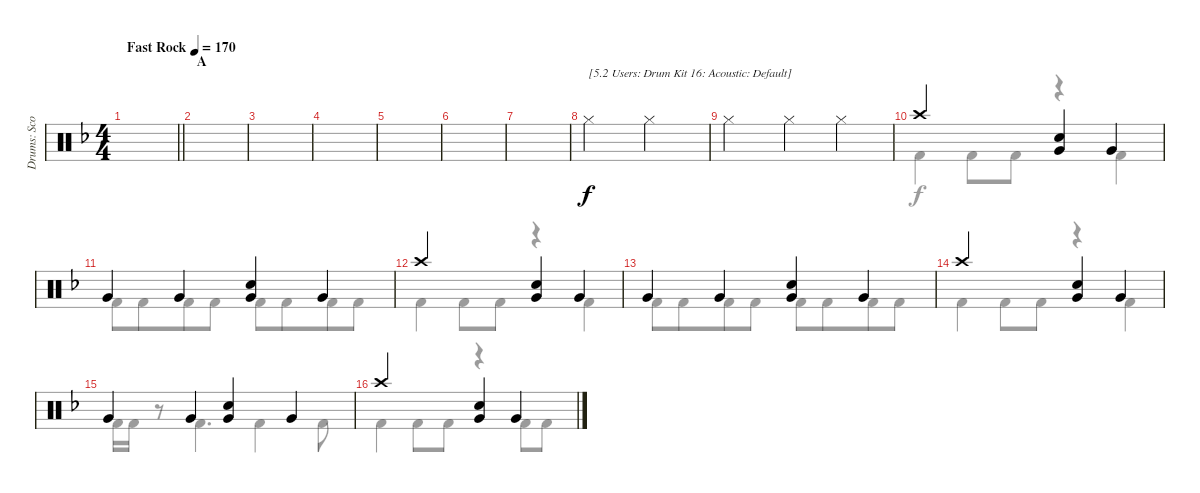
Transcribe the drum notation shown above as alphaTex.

\track ("Drums: Scott" "Drums: Sco") {instrument percussion}
\staff {score}
\articulation defaults
\voice
\ts (4 4)
\tempo (170 "Fast Rock")
\clef neutral
\barLineRight lightlight
\ks f
|
\section ("" "A")
|
|
|
|
|
|
"Hi-Hat (closed)".2{txt "[5.2 Users: Drum Kit 16: Acoustic: Default]"} "Hi-Hat (closed)".2 |
"Hi-Hat (closed)".2 "Hi-Hat (closed)".4 "Hi-Hat (closed)".4 |
"Crash high (hit)".2 ("Snare (hit) 2" "Very Low Tom (hit)").4 "Very Low Tom (hit)".4 |
"Very Low Tom (hit)".4 "Very Low Tom (hit)".4 ("Snare (hit) 2" "Very Low Tom (hit)").4 "Very Low Tom (hit)".4 |
"Crash high (hit)".2 ("Snare (hit) 2" "Very Low Tom (hit)").4 "Very Low Tom (hit)".4 |
"Very Low Tom (hit)".4 "Very Low Tom (hit)".4 ("Snare (hit) 2" "Very Low Tom (hit)").4 "Very Low Tom (hit)".4 |
"Crash high (hit)".2 ("Snare (hit) 2" "Very Low Tom (hit)").4 "Very Low Tom (hit)".4 |
"Very Low Tom (hit)".4 "Very Low Tom (hit)".4 ("Snare (hit) 2" "Very Low Tom (hit)").4 "Very Low Tom (hit)".4 |
"Crash high (hit)".2 ("Snare (hit) 2" "Very Low Tom (hit)").4 "Very Low Tom (hit)".4
\voice
\clef neutral
\ottava regular
\simile none
\barLineRight lightlight
\ks f
|
|
|
|
|
|
|
|
|
"Kick (hit) 2".4 "Kick (hit) 2".8 "Kick (hit) 2".8 r.4 "Kick (hit) 2".4 |
"Kick (hit) 2".8 "Kick (hit) 2".8{beam merge} "Kick (hit) 2".8 "Kick (hit) 2".8 "Kick (hit) 2".8 "Kick (hit) 2".8{beam merge} "Kick (hit) 2".8 "Kick (hit) 2".8 |
"Kick (hit) 2".4 "Kick (hit) 2".8 "Kick (hit) 2".8 r.4 "Kick (hit) 2".4 |
"Kick (hit) 2".8 "Kick (hit) 2".8{beam merge} "Kick (hit) 2".8 "Kick (hit) 2".8 "Kick (hit) 2".8 "Kick (hit) 2".8{beam merge} "Kick (hit) 2".8 "Kick (hit) 2".8 |
"Kick (hit) 2".4 "Kick (hit) 2".8 "Kick (hit) 2".8 r.4 "Kick (hit) 2".4 |
"Kick (hit) 2".16 "Kick (hit) 2".16{beam merge} r.8 "Kick (hit) 2".4{d} "Kick (hit) 2".4 "Kick (hit) 2".8 |
"Kick (hit) 2".4 "Kick (hit) 2".8 "Kick (hit) 2".8 r.4 "Kick (hit) 2".8 "Kick (hit) 2".8
